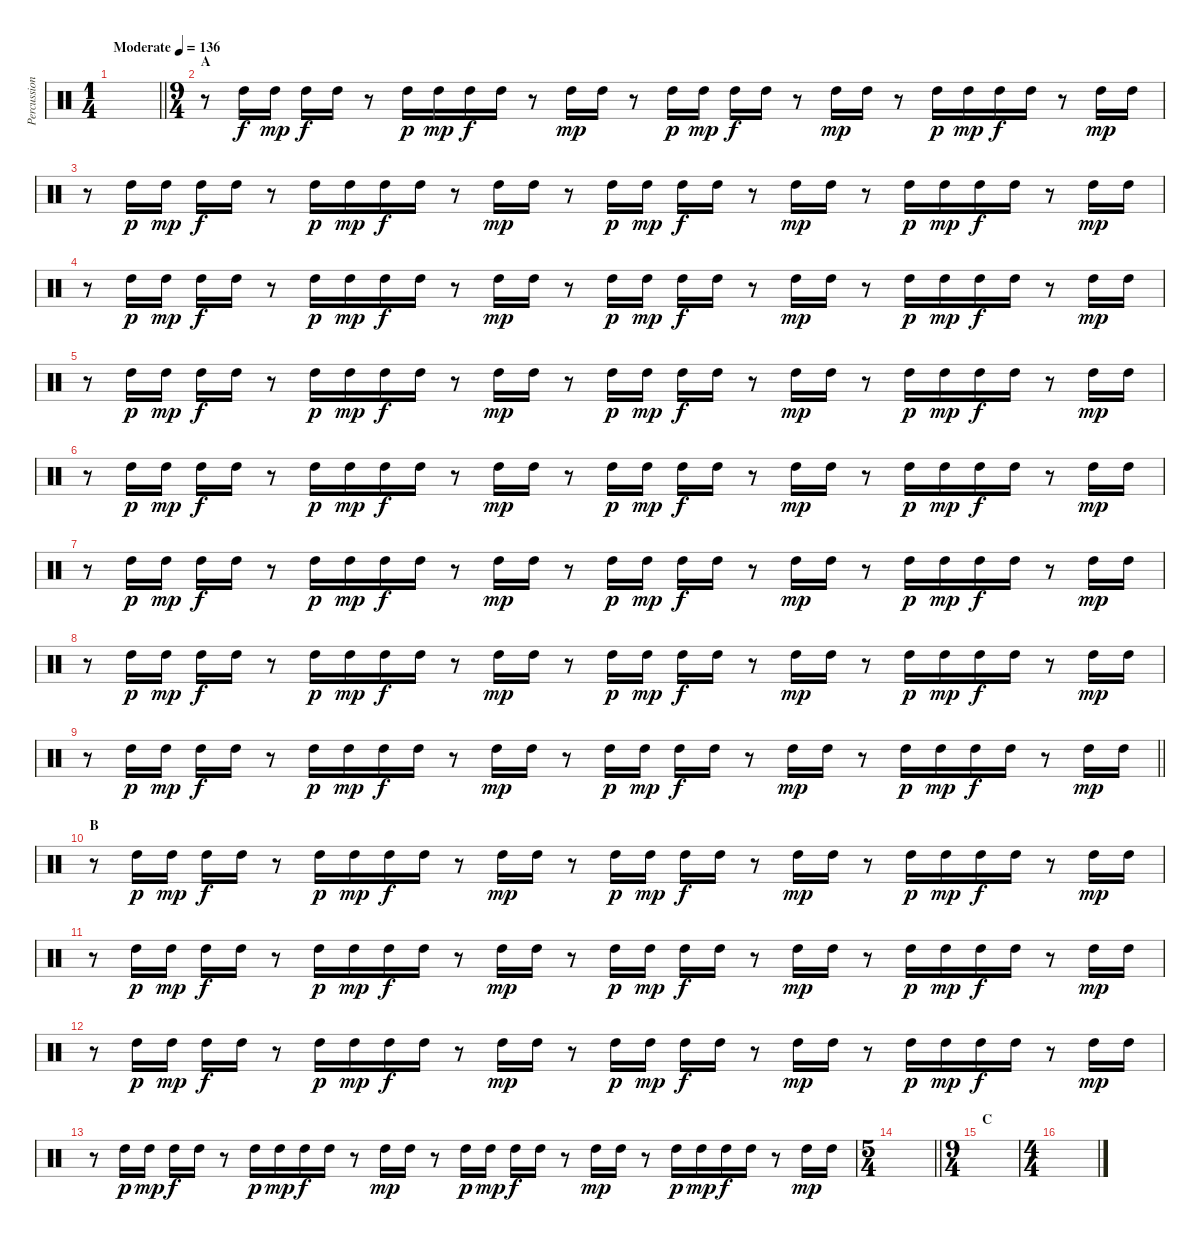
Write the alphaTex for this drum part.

\track ("Percussions" "Percussion") {instrument percussion}
\staff {score}
\articulation defaults
\ts (1 4)
\tempo (136 "Moderate")
\clef neutral
\barLineRight lightlight
\ks c
|
\ts (9 4)
\section ("" "A")
r.8 "High Tom (hit)".16 "High Tom (hit)".16{dy mp} "High Tom (hit)".16{dy f} "High Tom (hit)".16 r.8 "High Tom (hit)".16{dy p} "High Tom (hit)".16{dy mp} "High Tom (hit)".16{dy f} "High Tom (hit)".16 r.8 "High Tom (hit)".16{dy mp} "High Tom (hit)".16 r.8 "High Tom (hit)".16{dy p} "High Tom (hit)".16{dy mp} "High Tom (hit)".16{dy f} "High Tom (hit)".16 r.8 "High Tom (hit)".16{dy mp} "High Tom (hit)".16 r.8 "High Tom (hit)".16{dy p} "High Tom (hit)".16{dy mp} "High Tom (hit)".16{dy f} "High Tom (hit)".16 r.8 "High Tom (hit)".16{dy mp} "High Tom (hit)".16 |
r.8 "High Tom (hit)".16{dy p} "High Tom (hit)".16{dy mp} "High Tom (hit)".16{dy f} "High Tom (hit)".16 r.8 "High Tom (hit)".16{dy p} "High Tom (hit)".16{dy mp} "High Tom (hit)".16{dy f} "High Tom (hit)".16 r.8 "High Tom (hit)".16{dy mp} "High Tom (hit)".16 r.8 "High Tom (hit)".16{dy p} "High Tom (hit)".16{dy mp} "High Tom (hit)".16{dy f} "High Tom (hit)".16 r.8 "High Tom (hit)".16{dy mp} "High Tom (hit)".16 r.8 "High Tom (hit)".16{dy p} "High Tom (hit)".16{dy mp} "High Tom (hit)".16{dy f} "High Tom (hit)".16 r.8 "High Tom (hit)".16{dy mp} "High Tom (hit)".16 |
r.8 "High Tom (hit)".16{dy p} "High Tom (hit)".16{dy mp} "High Tom (hit)".16{dy f} "High Tom (hit)".16 r.8 "High Tom (hit)".16{dy p} "High Tom (hit)".16{dy mp} "High Tom (hit)".16{dy f} "High Tom (hit)".16 r.8 "High Tom (hit)".16{dy mp} "High Tom (hit)".16 r.8 "High Tom (hit)".16{dy p} "High Tom (hit)".16{dy mp} "High Tom (hit)".16{dy f} "High Tom (hit)".16 r.8 "High Tom (hit)".16{dy mp} "High Tom (hit)".16 r.8 "High Tom (hit)".16{dy p} "High Tom (hit)".16{dy mp} "High Tom (hit)".16{dy f} "High Tom (hit)".16 r.8 "High Tom (hit)".16{dy mp} "High Tom (hit)".16 |
r.8 "High Tom (hit)".16{dy p} "High Tom (hit)".16{dy mp} "High Tom (hit)".16{dy f} "High Tom (hit)".16 r.8 "High Tom (hit)".16{dy p} "High Tom (hit)".16{dy mp} "High Tom (hit)".16{dy f} "High Tom (hit)".16 r.8 "High Tom (hit)".16{dy mp} "High Tom (hit)".16 r.8 "High Tom (hit)".16{dy p} "High Tom (hit)".16{dy mp} "High Tom (hit)".16{dy f} "High Tom (hit)".16 r.8 "High Tom (hit)".16{dy mp} "High Tom (hit)".16 r.8 "High Tom (hit)".16{dy p} "High Tom (hit)".16{dy mp} "High Tom (hit)".16{dy f} "High Tom (hit)".16 r.8 "High Tom (hit)".16{dy mp} "High Tom (hit)".16 |
r.8 "High Tom (hit)".16{dy p} "High Tom (hit)".16{dy mp} "High Tom (hit)".16{dy f} "High Tom (hit)".16 r.8 "High Tom (hit)".16{dy p} "High Tom (hit)".16{dy mp} "High Tom (hit)".16{dy f} "High Tom (hit)".16 r.8 "High Tom (hit)".16{dy mp} "High Tom (hit)".16 r.8 "High Tom (hit)".16{dy p} "High Tom (hit)".16{dy mp} "High Tom (hit)".16{dy f} "High Tom (hit)".16 r.8 "High Tom (hit)".16{dy mp} "High Tom (hit)".16 r.8 "High Tom (hit)".16{dy p} "High Tom (hit)".16{dy mp} "High Tom (hit)".16{dy f} "High Tom (hit)".16 r.8 "High Tom (hit)".16{dy mp} "High Tom (hit)".16 |
r.8 "High Tom (hit)".16{dy p} "High Tom (hit)".16{dy mp} "High Tom (hit)".16{dy f} "High Tom (hit)".16 r.8 "High Tom (hit)".16{dy p} "High Tom (hit)".16{dy mp} "High Tom (hit)".16{dy f} "High Tom (hit)".16 r.8 "High Tom (hit)".16{dy mp} "High Tom (hit)".16 r.8 "High Tom (hit)".16{dy p} "High Tom (hit)".16{dy mp} "High Tom (hit)".16{dy f} "High Tom (hit)".16 r.8 "High Tom (hit)".16{dy mp} "High Tom (hit)".16 r.8 "High Tom (hit)".16{dy p} "High Tom (hit)".16{dy mp} "High Tom (hit)".16{dy f} "High Tom (hit)".16 r.8 "High Tom (hit)".16{dy mp} "High Tom (hit)".16 |
r.8 "High Tom (hit)".16{dy p} "High Tom (hit)".16{dy mp} "High Tom (hit)".16{dy f} "High Tom (hit)".16 r.8 "High Tom (hit)".16{dy p} "High Tom (hit)".16{dy mp} "High Tom (hit)".16{dy f} "High Tom (hit)".16 r.8 "High Tom (hit)".16{dy mp} "High Tom (hit)".16 r.8 "High Tom (hit)".16{dy p} "High Tom (hit)".16{dy mp} "High Tom (hit)".16{dy f} "High Tom (hit)".16 r.8 "High Tom (hit)".16{dy mp} "High Tom (hit)".16 r.8 "High Tom (hit)".16{dy p} "High Tom (hit)".16{dy mp} "High Tom (hit)".16{dy f} "High Tom (hit)".16 r.8 "High Tom (hit)".16{dy mp} "High Tom (hit)".16 |
\barLineRight lightlight
r.8 "High Tom (hit)".16{dy p} "High Tom (hit)".16{dy mp} "High Tom (hit)".16{dy f} "High Tom (hit)".16 r.8 "High Tom (hit)".16{dy p} "High Tom (hit)".16{dy mp} "High Tom (hit)".16{dy f} "High Tom (hit)".16 r.8 "High Tom (hit)".16{dy mp} "High Tom (hit)".16 r.8 "High Tom (hit)".16{dy p} "High Tom (hit)".16{dy mp} "High Tom (hit)".16{dy f} "High Tom (hit)".16 r.8 "High Tom (hit)".16{dy mp} "High Tom (hit)".16 r.8 "High Tom (hit)".16{dy p} "High Tom (hit)".16{dy mp} "High Tom (hit)".16{dy f} "High Tom (hit)".16 r.8 "High Tom (hit)".16{dy mp} "High Tom (hit)".16 |
\section ("" "B")
r.8 "High Tom (hit)".16{dy p} "High Tom (hit)".16{dy mp} "High Tom (hit)".16{dy f} "High Tom (hit)".16 r.8 "High Tom (hit)".16{dy p} "High Tom (hit)".16{dy mp} "High Tom (hit)".16{dy f} "High Tom (hit)".16 r.8 "High Tom (hit)".16{dy mp} "High Tom (hit)".16 r.8 "High Tom (hit)".16{dy p} "High Tom (hit)".16{dy mp} "High Tom (hit)".16{dy f} "High Tom (hit)".16 r.8 "High Tom (hit)".16{dy mp} "High Tom (hit)".16 r.8 "High Tom (hit)".16{dy p} "High Tom (hit)".16{dy mp} "High Tom (hit)".16{dy f} "High Tom (hit)".16 r.8 "High Tom (hit)".16{dy mp} "High Tom (hit)".16 |
r.8 "High Tom (hit)".16{dy p} "High Tom (hit)".16{dy mp} "High Tom (hit)".16{dy f} "High Tom (hit)".16 r.8 "High Tom (hit)".16{dy p} "High Tom (hit)".16{dy mp} "High Tom (hit)".16{dy f} "High Tom (hit)".16 r.8 "High Tom (hit)".16{dy mp} "High Tom (hit)".16 r.8 "High Tom (hit)".16{dy p} "High Tom (hit)".16{dy mp} "High Tom (hit)".16{dy f} "High Tom (hit)".16 r.8 "High Tom (hit)".16{dy mp} "High Tom (hit)".16 r.8 "High Tom (hit)".16{dy p} "High Tom (hit)".16{dy mp} "High Tom (hit)".16{dy f} "High Tom (hit)".16 r.8 "High Tom (hit)".16{dy mp} "High Tom (hit)".16 |
r.8 "High Tom (hit)".16{dy p} "High Tom (hit)".16{dy mp} "High Tom (hit)".16{dy f} "High Tom (hit)".16 r.8 "High Tom (hit)".16{dy p} "High Tom (hit)".16{dy mp} "High Tom (hit)".16{dy f} "High Tom (hit)".16 r.8 "High Tom (hit)".16{dy mp} "High Tom (hit)".16 r.8 "High Tom (hit)".16{dy p} "High Tom (hit)".16{dy mp} "High Tom (hit)".16{dy f} "High Tom (hit)".16 r.8 "High Tom (hit)".16{dy mp} "High Tom (hit)".16 r.8 "High Tom (hit)".16{dy p} "High Tom (hit)".16{dy mp} "High Tom (hit)".16{dy f} "High Tom (hit)".16 r.8 "High Tom (hit)".16{dy mp} "High Tom (hit)".16 |
r.8 "High Tom (hit)".16{dy p} "High Tom (hit)".16{dy mp} "High Tom (hit)".16{dy f} "High Tom (hit)".16 r.8 "High Tom (hit)".16{dy p} "High Tom (hit)".16{dy mp} "High Tom (hit)".16{dy f} "High Tom (hit)".16 r.8 "High Tom (hit)".16{dy mp} "High Tom (hit)".16 r.8 "High Tom (hit)".16{dy p} "High Tom (hit)".16{dy mp} "High Tom (hit)".16{dy f} "High Tom (hit)".16 r.8 "High Tom (hit)".16{dy mp} "High Tom (hit)".16 r.8 "High Tom (hit)".16{dy p} "High Tom (hit)".16{dy mp} "High Tom (hit)".16{dy f} "High Tom (hit)".16 r.8 "High Tom (hit)".16{dy mp} "High Tom (hit)".16 |
\ts (5 4)
\barLineRight lightlight
|
\ts (9 4)
\section ("" "C")
|
\ts (4 4)
